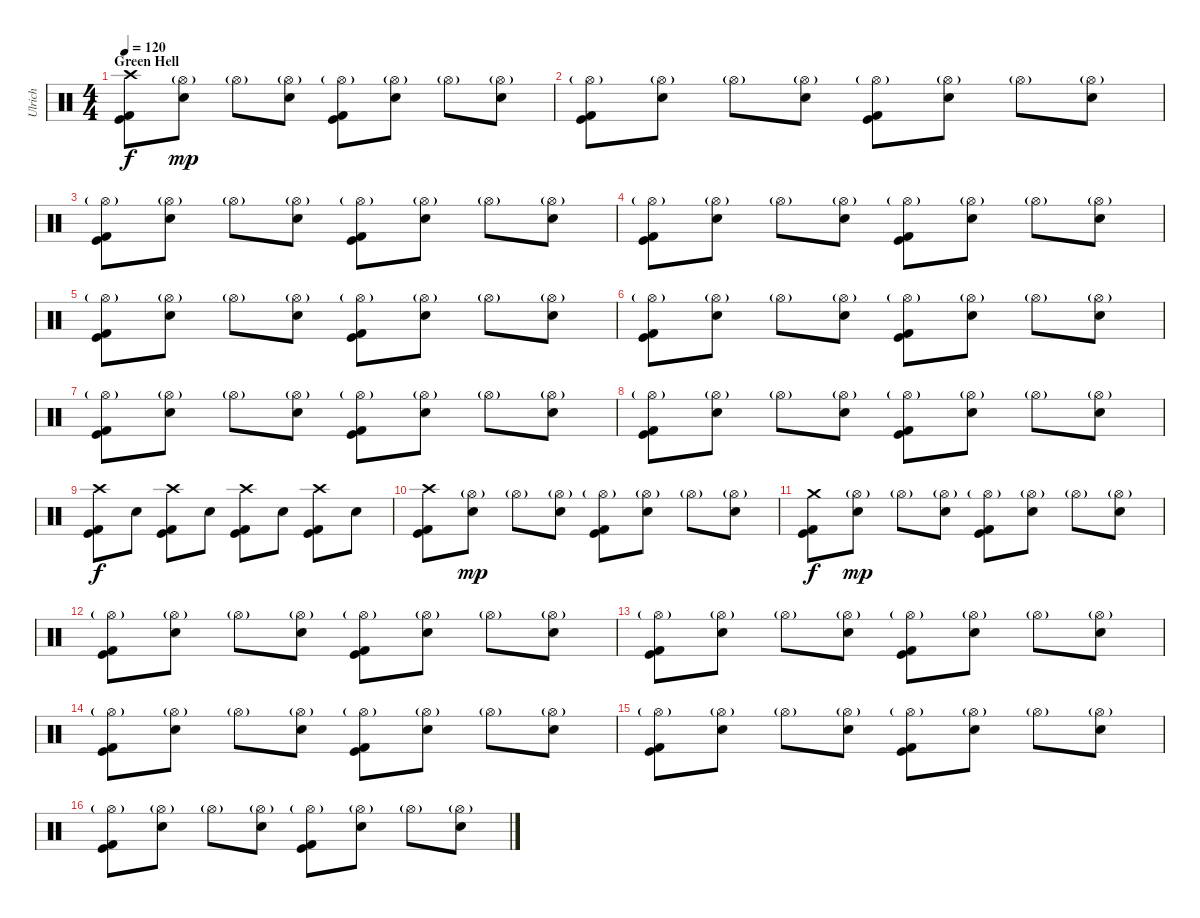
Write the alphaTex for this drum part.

\track ("Ulrich" "Ulrich") {instrument percussion}
\staff {score}
\articulation defaults
\ts (4 4)
\section ("" "Green Hell")
\tempo 120
\tempo 212
\tempo 120
\clef neutral
\ks c
("Crash high (hit)" "Kick (hit)" "Kick (hit) 2").8{dy f} ("Hi-Hat (open)"{g} "Electric Snare (hit)").8{dy mp} "Hi-Hat (open)"{g}.8 ("Hi-Hat (open)"{g} "Electric Snare (hit)").8 ("Hi-Hat (open)"{g} "Kick (hit)" "Kick (hit) 2").8 ("Hi-Hat (open)"{g} "Electric Snare (hit)").8 "Hi-Hat (open)"{g}.8 ("Hi-Hat (open)"{g} "Electric Snare (hit)").8 |
("Hi-Hat (open)"{g} "Kick (hit)" "Kick (hit) 2").8 ("Hi-Hat (open)"{g} "Electric Snare (hit)").8 "Hi-Hat (open)"{g}.8 ("Hi-Hat (open)"{g} "Electric Snare (hit)").8 ("Hi-Hat (open)"{g} "Kick (hit)" "Kick (hit) 2").8 ("Hi-Hat (open)"{g} "Electric Snare (hit)").8 "Hi-Hat (open)"{g}.8 ("Hi-Hat (open)"{g} "Electric Snare (hit)").8 |
("Hi-Hat (open)"{g} "Kick (hit)" "Kick (hit) 2").8 ("Hi-Hat (open)"{g} "Electric Snare (hit)").8 "Hi-Hat (open)"{g}.8 ("Hi-Hat (open)"{g} "Electric Snare (hit)").8 ("Hi-Hat (open)"{g} "Kick (hit)" "Kick (hit) 2").8 ("Hi-Hat (open)"{g} "Electric Snare (hit)").8 "Hi-Hat (open)"{g}.8 ("Hi-Hat (open)"{g} "Electric Snare (hit)").8 |
("Hi-Hat (open)"{g} "Kick (hit)" "Kick (hit) 2").8 ("Hi-Hat (open)"{g} "Electric Snare (hit)").8 "Hi-Hat (open)"{g}.8 ("Hi-Hat (open)"{g} "Electric Snare (hit)").8 ("Hi-Hat (open)"{g} "Kick (hit)" "Kick (hit) 2").8 ("Hi-Hat (open)"{g} "Electric Snare (hit)").8 "Hi-Hat (open)"{g}.8 ("Hi-Hat (open)"{g} "Electric Snare (hit)").8 |
("Hi-Hat (open)"{g} "Kick (hit)" "Kick (hit) 2").8 ("Hi-Hat (open)"{g} "Electric Snare (hit)").8 "Hi-Hat (open)"{g}.8 ("Hi-Hat (open)"{g} "Electric Snare (hit)").8 ("Hi-Hat (open)"{g} "Kick (hit)" "Kick (hit) 2").8 ("Hi-Hat (open)"{g} "Electric Snare (hit)").8 "Hi-Hat (open)"{g}.8 ("Hi-Hat (open)"{g} "Electric Snare (hit)").8 |
("Hi-Hat (open)"{g} "Kick (hit)" "Kick (hit) 2").8 ("Hi-Hat (open)"{g} "Electric Snare (hit)").8 "Hi-Hat (open)"{g}.8 ("Hi-Hat (open)"{g} "Electric Snare (hit)").8 ("Hi-Hat (open)"{g} "Kick (hit)" "Kick (hit) 2").8 ("Hi-Hat (open)"{g} "Electric Snare (hit)").8 "Hi-Hat (open)"{g}.8 ("Hi-Hat (open)"{g} "Electric Snare (hit)").8 |
("Hi-Hat (open)"{g} "Kick (hit)" "Kick (hit) 2").8 ("Hi-Hat (open)"{g} "Electric Snare (hit)").8 "Hi-Hat (open)"{g}.8 ("Hi-Hat (open)"{g} "Electric Snare (hit)").8 ("Hi-Hat (open)"{g} "Kick (hit)" "Kick (hit) 2").8 ("Hi-Hat (open)"{g} "Electric Snare (hit)").8 "Hi-Hat (open)"{g}.8 ("Hi-Hat (open)"{g} "Electric Snare (hit)").8 |
("Hi-Hat (open)"{g} "Kick (hit)" "Kick (hit) 2").8 ("Hi-Hat (open)"{g} "Electric Snare (hit)").8 "Hi-Hat (open)"{g}.8 ("Hi-Hat (open)"{g} "Electric Snare (hit)").8 ("Hi-Hat (open)"{g} "Kick (hit)" "Kick (hit) 2").8 ("Hi-Hat (open)"{g} "Electric Snare (hit)").8 "Hi-Hat (open)"{g}.8 ("Hi-Hat (open)"{g} "Electric Snare (hit)").8 |
("Crash high (hit)" "Kick (hit)" "Kick (hit) 2").8{dy f} "Electric Snare (hit)".8 ("Crash high (hit)" "Kick (hit)" "Kick (hit) 2").8 "Electric Snare (hit)".8 ("Crash high (hit)" "Kick (hit)" "Kick (hit) 2").8 "Electric Snare (hit)".8 ("Crash high (hit)" "Kick (hit)" "Kick (hit) 2").8 "Electric Snare (hit)".8 |
("Crash high (hit)" "Kick (hit)" "Kick (hit) 2").8 ("Hi-Hat (open)"{g} "Electric Snare (hit)").8{dy mp} "Hi-Hat (open)"{g}.8 ("Hi-Hat (open)"{g} "Electric Snare (hit)").8 ("Hi-Hat (open)"{g} "Kick (hit)" "Kick (hit) 2").8 ("Hi-Hat (open)"{g} "Electric Snare (hit)").8 "Hi-Hat (open)"{g}.8 ("Hi-Hat (open)"{g} "Electric Snare (hit)").8 |
("Crash medium (hit)" "Kick (hit)" "Kick (hit) 2").8{dy f} ("Hi-Hat (open)"{g} "Electric Snare (hit)").8{dy mp} "Hi-Hat (open)"{g}.8 ("Hi-Hat (open)"{g} "Electric Snare (hit)").8 ("Hi-Hat (open)"{g} "Kick (hit)" "Kick (hit) 2").8 ("Hi-Hat (open)"{g} "Electric Snare (hit)").8 "Hi-Hat (open)"{g}.8 ("Hi-Hat (open)"{g} "Electric Snare (hit)").8 |
("Hi-Hat (open)"{g} "Kick (hit)" "Kick (hit) 2").8 ("Hi-Hat (open)"{g} "Electric Snare (hit)").8 "Hi-Hat (open)"{g}.8 ("Hi-Hat (open)"{g} "Electric Snare (hit)").8 ("Hi-Hat (open)"{g} "Kick (hit)" "Kick (hit) 2").8 ("Hi-Hat (open)"{g} "Electric Snare (hit)").8 "Hi-Hat (open)"{g}.8 ("Hi-Hat (open)"{g} "Electric Snare (hit)").8 |
("Hi-Hat (open)"{g} "Kick (hit)" "Kick (hit) 2").8 ("Hi-Hat (open)"{g} "Electric Snare (hit)").8 "Hi-Hat (open)"{g}.8 ("Hi-Hat (open)"{g} "Electric Snare (hit)").8 ("Hi-Hat (open)"{g} "Kick (hit)" "Kick (hit) 2").8 ("Hi-Hat (open)"{g} "Electric Snare (hit)").8 "Hi-Hat (open)"{g}.8 ("Hi-Hat (open)"{g} "Electric Snare (hit)").8 |
("Hi-Hat (open)"{g} "Kick (hit)" "Kick (hit) 2").8 ("Hi-Hat (open)"{g} "Electric Snare (hit)").8 "Hi-Hat (open)"{g}.8 ("Hi-Hat (open)"{g} "Electric Snare (hit)").8 ("Hi-Hat (open)"{g} "Kick (hit)" "Kick (hit) 2").8 ("Hi-Hat (open)"{g} "Electric Snare (hit)").8 "Hi-Hat (open)"{g}.8 ("Hi-Hat (open)"{g} "Electric Snare (hit)").8 |
("Hi-Hat (open)"{g} "Kick (hit)" "Kick (hit) 2").8 ("Hi-Hat (open)"{g} "Electric Snare (hit)").8 "Hi-Hat (open)"{g}.8 ("Hi-Hat (open)"{g} "Electric Snare (hit)").8 ("Hi-Hat (open)"{g} "Kick (hit)" "Kick (hit) 2").8 ("Hi-Hat (open)"{g} "Electric Snare (hit)").8 "Hi-Hat (open)"{g}.8 ("Hi-Hat (open)"{g} "Electric Snare (hit)").8 |
("Hi-Hat (open)"{g} "Kick (hit)" "Kick (hit) 2").8 ("Hi-Hat (open)"{g} "Electric Snare (hit)").8 "Hi-Hat (open)"{g}.8 ("Hi-Hat (open)"{g} "Electric Snare (hit)").8 ("Hi-Hat (open)"{g} "Kick (hit)" "Kick (hit) 2").8 ("Hi-Hat (open)"{g} "Electric Snare (hit)").8 "Hi-Hat (open)"{g}.8 ("Hi-Hat (open)"{g} "Electric Snare (hit)").8
